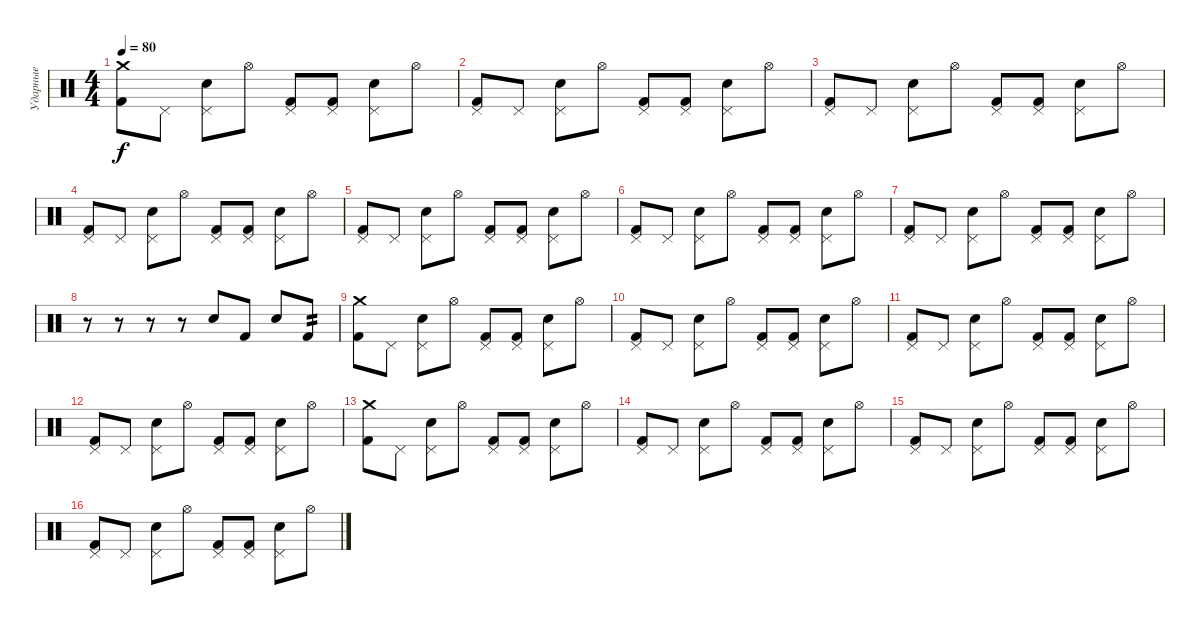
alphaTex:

\track ("Ударные" "Ударные") {instrument percussion}
\staff {score}
\articulation defaults
\ts (4 4)
\tempo 80
\clef neutral
\ks c
("Crash medium (hit)" "Kick (hit) 2").8{dy f} "Pedal Hi-Hat (hit)".8 ("Pedal Hi-Hat (hit)" "Electric Snare (hit)").8 "Hi-Hat (open)".8 ("Pedal Hi-Hat (hit)" "Kick (hit) 2").8 ("Pedal Hi-Hat (hit)" "Kick (hit) 2").8 ("Pedal Hi-Hat (hit)" "Electric Snare (hit)").8 "Hi-Hat (open)".8 |
("Pedal Hi-Hat (hit)" "Kick (hit) 2").8 "Pedal Hi-Hat (hit)".8 ("Pedal Hi-Hat (hit)" "Electric Snare (hit)").8 "Hi-Hat (open)".8 ("Pedal Hi-Hat (hit)" "Kick (hit) 2").8 ("Pedal Hi-Hat (hit)" "Kick (hit) 2").8 ("Pedal Hi-Hat (hit)" "Electric Snare (hit)").8 "Hi-Hat (open)".8 |
("Pedal Hi-Hat (hit)" "Kick (hit) 2").8 "Pedal Hi-Hat (hit)".8 ("Pedal Hi-Hat (hit)" "Electric Snare (hit)").8 "Hi-Hat (open)".8 ("Pedal Hi-Hat (hit)" "Kick (hit) 2").8 ("Pedal Hi-Hat (hit)" "Kick (hit) 2").8 ("Pedal Hi-Hat (hit)" "Electric Snare (hit)").8 "Hi-Hat (open)".8 |
("Pedal Hi-Hat (hit)" "Kick (hit) 2").8 "Pedal Hi-Hat (hit)".8 ("Pedal Hi-Hat (hit)" "Electric Snare (hit)").8 "Hi-Hat (open)".8 ("Pedal Hi-Hat (hit)" "Kick (hit) 2").8 ("Pedal Hi-Hat (hit)" "Kick (hit) 2").8 ("Pedal Hi-Hat (hit)" "Electric Snare (hit)").8 "Hi-Hat (open)".8 |
("Pedal Hi-Hat (hit)" "Kick (hit) 2").8 "Pedal Hi-Hat (hit)".8 ("Pedal Hi-Hat (hit)" "Electric Snare (hit)").8 "Hi-Hat (open)".8 ("Pedal Hi-Hat (hit)" "Kick (hit) 2").8 ("Pedal Hi-Hat (hit)" "Kick (hit) 2").8 ("Pedal Hi-Hat (hit)" "Electric Snare (hit)").8 "Hi-Hat (open)".8 |
("Pedal Hi-Hat (hit)" "Kick (hit) 2").8 "Pedal Hi-Hat (hit)".8 ("Pedal Hi-Hat (hit)" "Electric Snare (hit)").8 "Hi-Hat (open)".8 ("Pedal Hi-Hat (hit)" "Kick (hit) 2").8 ("Pedal Hi-Hat (hit)" "Kick (hit) 2").8 ("Pedal Hi-Hat (hit)" "Electric Snare (hit)").8 "Hi-Hat (open)".8 |
("Pedal Hi-Hat (hit)" "Kick (hit) 2").8 "Pedal Hi-Hat (hit)".8 ("Pedal Hi-Hat (hit)" "Electric Snare (hit)").8 "Hi-Hat (open)".8 ("Pedal Hi-Hat (hit)" "Kick (hit) 2").8 ("Pedal Hi-Hat (hit)" "Kick (hit) 2").8 ("Pedal Hi-Hat (hit)" "Electric Snare (hit)").8 "Hi-Hat (open)".8 |
r.8 r.8 r.8 r.8 "Electric Snare (hit)".8 "Kick (hit) 2".8 "Electric Snare (hit)".8 "Kick (hit) 2".8{tp 2} |
("Crash medium (hit)" "Kick (hit) 2").8 "Pedal Hi-Hat (hit)".8 ("Pedal Hi-Hat (hit)" "Electric Snare (hit)").8 "Hi-Hat (open)".8 ("Pedal Hi-Hat (hit)" "Kick (hit) 2").8 ("Pedal Hi-Hat (hit)" "Kick (hit) 2").8 ("Pedal Hi-Hat (hit)" "Electric Snare (hit)").8 "Hi-Hat (open)".8 |
("Pedal Hi-Hat (hit)" "Kick (hit) 2").8 "Pedal Hi-Hat (hit)".8 ("Pedal Hi-Hat (hit)" "Electric Snare (hit)").8 "Hi-Hat (open)".8 ("Pedal Hi-Hat (hit)" "Kick (hit) 2").8 ("Pedal Hi-Hat (hit)" "Kick (hit) 2").8 ("Pedal Hi-Hat (hit)" "Electric Snare (hit)").8 "Hi-Hat (open)".8 |
("Pedal Hi-Hat (hit)" "Kick (hit) 2").8 "Pedal Hi-Hat (hit)".8 ("Pedal Hi-Hat (hit)" "Electric Snare (hit)").8 "Hi-Hat (open)".8 ("Pedal Hi-Hat (hit)" "Kick (hit) 2").8 ("Pedal Hi-Hat (hit)" "Kick (hit) 2").8 ("Pedal Hi-Hat (hit)" "Electric Snare (hit)").8 "Hi-Hat (open)".8 |
("Pedal Hi-Hat (hit)" "Kick (hit) 2").8 "Pedal Hi-Hat (hit)".8 ("Pedal Hi-Hat (hit)" "Electric Snare (hit)").8 "Hi-Hat (open)".8 ("Pedal Hi-Hat (hit)" "Kick (hit) 2").8 ("Pedal Hi-Hat (hit)" "Kick (hit) 2").8 ("Pedal Hi-Hat (hit)" "Electric Snare (hit)").8 "Hi-Hat (open)".8 |
("Crash medium (hit)" "Kick (hit) 2").8 "Pedal Hi-Hat (hit)".8 ("Pedal Hi-Hat (hit)" "Electric Snare (hit)").8 "Hi-Hat (open)".8 ("Pedal Hi-Hat (hit)" "Kick (hit) 2").8 ("Pedal Hi-Hat (hit)" "Kick (hit) 2").8 ("Pedal Hi-Hat (hit)" "Electric Snare (hit)").8 "Hi-Hat (open)".8 |
("Pedal Hi-Hat (hit)" "Kick (hit) 2").8 "Pedal Hi-Hat (hit)".8 ("Pedal Hi-Hat (hit)" "Electric Snare (hit)").8 "Hi-Hat (open)".8 ("Pedal Hi-Hat (hit)" "Kick (hit) 2").8 ("Pedal Hi-Hat (hit)" "Kick (hit) 2").8 ("Pedal Hi-Hat (hit)" "Electric Snare (hit)").8 "Hi-Hat (open)".8 |
("Pedal Hi-Hat (hit)" "Kick (hit) 2").8 "Pedal Hi-Hat (hit)".8 ("Pedal Hi-Hat (hit)" "Electric Snare (hit)").8 "Hi-Hat (open)".8 ("Pedal Hi-Hat (hit)" "Kick (hit) 2").8 ("Pedal Hi-Hat (hit)" "Kick (hit) 2").8 ("Pedal Hi-Hat (hit)" "Electric Snare (hit)").8 "Hi-Hat (open)".8 |
("Pedal Hi-Hat (hit)" "Kick (hit) 2").8 "Pedal Hi-Hat (hit)".8 ("Pedal Hi-Hat (hit)" "Electric Snare (hit)").8 "Hi-Hat (open)".8 ("Pedal Hi-Hat (hit)" "Kick (hit) 2").8 ("Pedal Hi-Hat (hit)" "Kick (hit) 2").8 ("Pedal Hi-Hat (hit)" "Electric Snare (hit)").8 "Hi-Hat (open)".8
